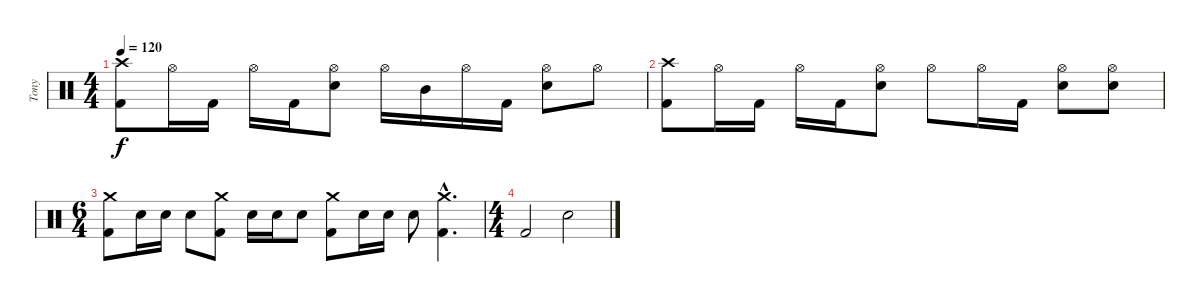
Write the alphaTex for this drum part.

\track ("Tony" "Tony") {instrument percussion}
\staff {score}
\articulation defaults
\ts (4 4)
\tempo 120
\clef neutral
\ks c
("Crash high (hit)" "Kick (hit) 2").8{dy f} "Hi-Hat (open)".16 "Kick (hit) 2".16 "Hi-Hat (open)".16 "Kick (hit) 2".16 ("Hi-Hat (open)" "Snare (hit) 2").8 "Hi-Hat (open)".16 "Mid Tom (hit)".16 "Hi-Hat (open)".16 "Kick (hit) 2".16 ("Hi-Hat (open)" "Snare (hit) 2").8 "Hi-Hat (open)".8 |
("Crash high (hit)" "Kick (hit) 2").8 "Hi-Hat (open)".16 "Kick (hit) 2".16 "Hi-Hat (open)".16 "Kick (hit) 2".16 ("Hi-Hat (open)" "Snare (hit) 2").8 "Hi-Hat (open)".8 "Hi-Hat (open)".16 "Kick (hit) 2".16 ("Hi-Hat (open)" "Snare (hit) 2").8 ("Hi-Hat (open)" "Snare (hit) 2").8 |
\ts (6 4)
("Crash medium (hit)" "Kick (hit) 2").8 "Snare (hit) 2".16 "Snare (hit) 2".16 "Snare (hit) 2".8 ("Crash medium (hit)" "Kick (hit) 2").8 "Snare (hit) 2".16 "Snare (hit) 2".16 "Snare (hit) 2".8 ("Crash medium (hit)" "Kick (hit) 2").8 "Snare (hit) 2".16 "Snare (hit) 2".16 "Snare (hit) 2".8 ("Crash medium (hit)"{hac} "Kick (hit) 2"{hac}).4{d} |
\ts (4 4)
"Kick (hit) 2".2 "Electric Snare (hit)".2
